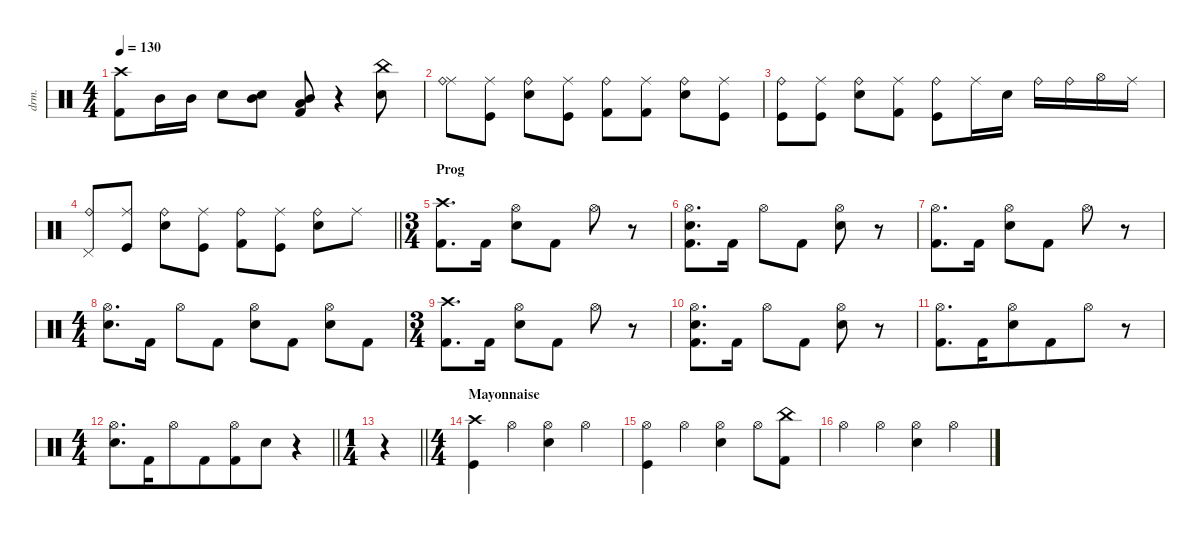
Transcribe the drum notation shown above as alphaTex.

\defaultSystemsLayout 4
\hideDynamics
\bracketExtendMode nobrackets
\track ("Manouche" "drm.") {instrument percussion}
\staff {score}
\articulation defaults
\voice
\ts (4 4)
\tempo 130
\clef neutral
\ks c
("Crash high (hit)" "Kick (hit) 2").8{dy f beam Down} "Mid Tom (hit)".16{beam Down} "Mid Tom (hit)".16{beam Down} "Snare (hit) 2".8{dy ff beam Down} ("Mid Tom (hit)" "Snare (hit) 2").8{dy mf beam Down} ("Kick (hit) 2" "Mid Tom (hit)" "Low Floor Tom (hit)").8{dy ff beam Up} r.4{beam Up} ("China (hit)" "Snare (hit) 2").8{beam Down} |
("Ride (middle)" "Ride (bell)").8{dy f beam Down} ("Ride (middle)" "Kick (hit)").8{dy mp beam Down} ("Snare (hit) 2" "Ride (bell)").8{dy f beam Down} ("Kick (hit)" "Ride (middle)").8{beam Down} ("Ride (bell)" "Kick (hit) 2").8{beam Down} ("Ride (middle)" "Kick (hit) 2").8{dy mp beam Down} ("Ride (bell)" "Snare (hit) 2").8{dy f beam Down} ("Ride (middle)" "Kick (hit)").8{dy mp beam Down} |
("Kick (hit)" "Ride (bell)").8{dy f beam Down} ("Kick (hit)" "Ride (middle)").8{beam Down} ("Ride (bell)" "Snare (hit) 2").8{beam Down} ("Ride (middle)" "Kick (hit) 2").8{dy mp beam Down} ("Ride (bell)" "Kick (hit)").8{dy f beam Down} "Ride (middle)".16{dy mp beam Down} "Snare (hit) 2".16{dy f beam Down} "Ride (bell)".16{beam Down} "Ride (bell)".16{beam Down} "Hi-Hat (open)".16{beam Down} "Ride (middle)".16{beam Down} |
\barLineRight lightlight
("Ride (bell)" "Pedal Hi-Hat (hit)").8{beam Up} ("Kick (hit)" "Ride (middle)").8{beam Up} ("Snare (hit) 2" "Ride (bell)").8{beam Down} ("Ride (middle)" "Kick (hit)").8{dy mp beam Down} ("Ride (bell)" "Kick (hit) 2").8{dy f beam Down} ("Ride (middle)" "Kick (hit)").8{dy mp beam Down} ("Snare (hit) 2" "Ride (bell)").8{dy f beam Down} "Ride (middle)".8{dy mp beam Down} |
\ts (3 4)
\beaming (8 2 2 2)
\section ("" "Prog")
("Crash high (hit)" "Kick (hit) 2").8{d dy f beam Down} "Kick (hit) 2".16{beam Down} ("Hi-Hat (open)" "Snare (hit) 2").8{beam Down} "Kick (hit) 2".8{beam Down} "Hi-Hat (open)".8{beam Down} r.8{beam Down} |
("Hi-Hat (open)" "Snare (hit) 2" "Kick (hit) 2").8{d beam Down} "Kick (hit) 2".16{beam Down} "Hi-Hat (open)".8{beam Down} "Kick (hit) 2".8{beam Down} ("Hi-Hat (open)" "Snare (hit) 2").8{beam Down} r.8{beam Down} |
("Hi-Hat (open)" "Kick (hit) 2").8{d beam Down} "Kick (hit) 2".16{beam Down} ("Hi-Hat (open)" "Snare (hit) 2").8{beam Down} "Kick (hit) 2".8{beam Down} "Hi-Hat (open)".8{beam Down} r.8{beam Down} |
\ts (4 4)
\beaming (8 2 2 2 2)
("Hi-Hat (open)" "Snare (hit) 2").8{d beam Down} "Kick (hit) 2".16{beam Down} "Hi-Hat (open)".8{beam Down} "Kick (hit) 2".8{beam Down} ("Hi-Hat (open)" "Snare (hit) 2").8{beam Down} "Kick (hit) 2".8{beam Down} ("Hi-Hat (open)" "Snare (hit) 2").8{beam Down} "Kick (hit) 2".8{beam Down} |
\ts (3 4)
\beaming (8 2 2 2)
("Crash high (hit)" "Kick (hit) 2").8{d beam Down} "Kick (hit) 2".16{beam Down} ("Hi-Hat (open)" "Snare (hit) 2").8{beam Down} "Kick (hit) 2".8{beam Down} "Hi-Hat (open)".8{beam Down} r.8{beam Down} |
("Hi-Hat (open)" "Snare (hit) 2" "Kick (hit) 2").8{d beam Down} "Kick (hit) 2".16{beam Down} "Hi-Hat (open)".8{beam Down} "Kick (hit) 2".8{beam Down} ("Hi-Hat (open)" "Snare (hit) 2").8{beam Down} r.8{beam Down} |
\beaming (8 6 4)
("Hi-Hat (open)" "Kick (hit) 2").8{d beam Down} "Kick (hit) 2".16{beam Down} ("Hi-Hat (open)" "Snare (hit) 2").8{beam Down} "Kick (hit) 2".8{beam Down} "Hi-Hat (open)".8{beam Down} r.8{beam Down} |
\ts (4 4)
\beaming (8 6 4)
\barLineRight lightlight
("Hi-Hat (open)" "Snare (hit) 2").8{d beam Down} "Kick (hit) 2".16{beam Down} "Hi-Hat (open)".8{beam Down} "Kick (hit) 2".8{beam Down} ("Hi-Hat (open)" "Kick (hit) 2").8{beam Down} "Snare (hit) 2".8{beam Down} r.4{beam Down} |
\ts (1 4)
\beaming (8 2)
\barLineRight lightlight
r.4{beam Up} |
\ts (4 4)
\beaming (8 2 2 2 2)
\section ("" "Mayonnaise")
("Crash high (hit)" "Kick (hit)").4{beam Down} "Hi-Hat (open)".4{beam Down} ("Hi-Hat (open)" "Snare (hit) 2").4{beam Down} "Hi-Hat (open)".4{beam Down} |
("Hi-Hat (open)" "Kick (hit)").4{beam Down} "Hi-Hat (open)".4{beam Down} ("Hi-Hat (open)" "Snare (hit) 2").4{beam Down} "Hi-Hat (open)".8{beam Down} ("China (hit)" "Kick (hit) 2").8{beam Down} |
"Hi-Hat (open)".4{beam Down} "Hi-Hat (open)".4{beam Down} ("Hi-Hat (open)" "Snare (hit) 2").4{beam Down} "Hi-Hat (open)".4{beam Down}
\voice
\clef neutral
\ottava regular
\simile none
\ks c
|
|
|
\barLineRight lightlight
|
|
|
|
|
|
|
|
\barLineRight lightlight
|
\barLineRight lightlight
r.4{dy mf beam Down} |
|
|
